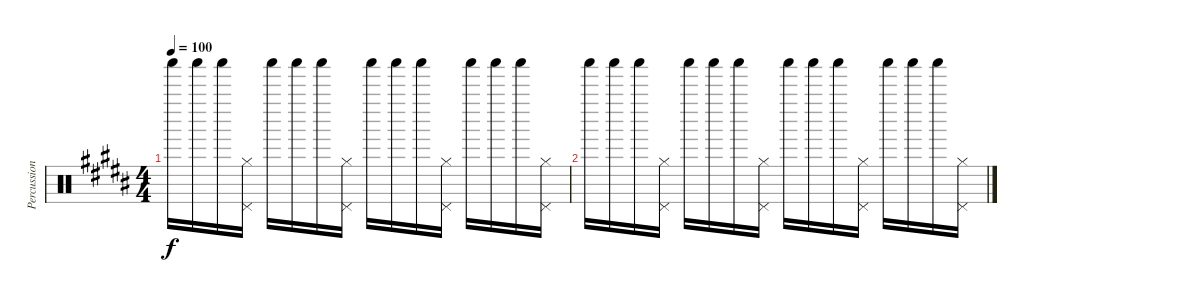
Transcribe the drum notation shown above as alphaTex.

\track ("Percussions" "Percussion") {instrument percussion}
\staff {score}
\articulation defaults
\ts (4 4)
\tempo 100
\clef neutral
\ks b "Shaker (hit)".16{dy f} "Shaker (hit)".16 "Shaker (hit)".16
("Hi-Hat (closed)" "Pedal Hi-Hat (hit)").16 "Shaker (hit)".16 "Shaker (hit)".16 "Shaker (hit)".16 ("Hi-Hat (closed)" "Pedal Hi-Hat (hit)").16 "Shaker (hit)".16 "Shaker (hit)".16 "Shaker (hit)".16 ("Hi-Hat (closed)" "Pedal Hi-Hat (hit)").16 "Shaker (hit)".16 "Shaker (hit)".16 "Shaker (hit)".16 ("Hi-Hat (closed)" "Pedal Hi-Hat (hit)").16 |
"Shaker (hit)".16 "Shaker (hit)".16 "Shaker (hit)".16 ("Hi-Hat (closed)" "Pedal Hi-Hat (hit)").16 "Shaker (hit)".16 "Shaker (hit)".16 "Shaker (hit)".16 ("Hi-Hat (closed)" "Pedal Hi-Hat (hit)").16 "Shaker (hit)".16 "Shaker (hit)".16 "Shaker (hit)".16 ("Hi-Hat (closed)" "Pedal Hi-Hat (hit)").16 "Shaker (hit)".16 "Shaker (hit)".16 "Shaker (hit)".16 ("Hi-Hat (closed)" "Pedal Hi-Hat (hit)").16
